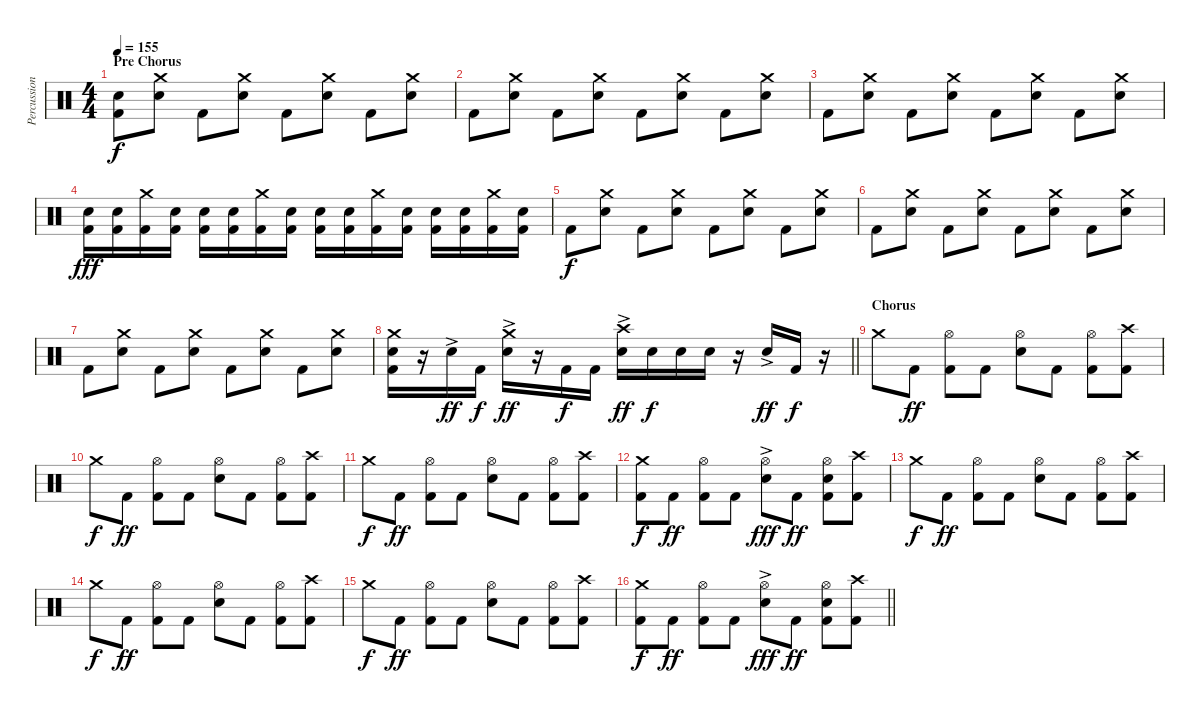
\track ("Percussion (Mike Oliver)" "Percussion") {instrument percussion}
\staff {score}
\articulation defaults
\ts (4 4)
\section ("" "Pre Chorus")
\tempo 155
\clef neutral
\ks c
("Snare (hit) 2" "Kick (hit) 2").8{dy f} ("Crash medium (hit)" "Snare (hit) 2").8 "Kick (hit) 2".8 ("Crash medium (hit)" "Snare (hit) 2").8 "Kick (hit) 2".8 ("Crash medium (hit)" "Snare (hit) 2").8 "Kick (hit) 2".8 ("Crash medium (hit)" "Snare (hit) 2").8 |
"Kick (hit) 2".8 ("Crash medium (hit)" "Snare (hit) 2").8 "Kick (hit) 2".8 ("Crash medium (hit)" "Snare (hit) 2").8 "Kick (hit) 2".8 ("Crash medium (hit)" "Snare (hit) 2").8 "Kick (hit) 2".8 ("Crash medium (hit)" "Snare (hit) 2").8 |
"Kick (hit) 2".8 ("Crash medium (hit)" "Snare (hit) 2").8 "Kick (hit) 2".8 ("Crash medium (hit)" "Snare (hit) 2").8 "Kick (hit) 2".8 ("Crash medium (hit)" "Snare (hit) 2").8 "Kick (hit) 2".8 ("Crash medium (hit)" "Snare (hit) 2").8 |
("Snare (hit) 2" "Kick (hit) 2").16{dy fff} ("Snare (hit) 2" "Kick (hit) 2").16 ("Crash medium (hit)" "Kick (hit) 2").16 ("Snare (hit) 2" "Kick (hit) 2").16 ("Snare (hit) 2" "Kick (hit) 2").16 ("Snare (hit) 2" "Kick (hit) 2").16 ("Crash medium (hit)" "Kick (hit) 2").16 ("Snare (hit) 2" "Kick (hit) 2").16 ("Snare (hit) 2" "Kick (hit) 2").16 ("Snare (hit) 2" "Kick (hit) 2").16 ("Crash medium (hit)" "Kick (hit) 2").16 ("Snare (hit) 2" "Kick (hit) 2").16 ("Snare (hit) 2" "Kick (hit) 2").16 ("Snare (hit) 2" "Kick (hit) 2").16 ("Crash medium (hit)" "Kick (hit) 2").16 ("Snare (hit) 2" "Kick (hit) 2").16 |
"Kick (hit) 2".8{dy f} ("Crash medium (hit)" "Snare (hit) 2").8 "Kick (hit) 2".8 ("Crash medium (hit)" "Snare (hit) 2").8 "Kick (hit) 2".8 ("Crash medium (hit)" "Snare (hit) 2").8 "Kick (hit) 2".8 ("Crash medium (hit)" "Snare (hit) 2").8 |
"Kick (hit) 2".8 ("Crash medium (hit)" "Snare (hit) 2").8 "Kick (hit) 2".8 ("Crash medium (hit)" "Snare (hit) 2").8 "Kick (hit) 2".8 ("Crash medium (hit)" "Snare (hit) 2").8 "Kick (hit) 2".8 ("Crash medium (hit)" "Snare (hit) 2").8 |
"Kick (hit) 2".8 ("Crash medium (hit)" "Snare (hit) 2").8 "Kick (hit) 2".8 ("Crash medium (hit)" "Snare (hit) 2").8 "Kick (hit) 2".8 ("Crash medium (hit)" "Snare (hit) 2").8 "Kick (hit) 2".8 ("Crash medium (hit)" "Snare (hit) 2").8 |
\barLineRight lightlight
("Crash medium (hit)" "Snare (hit) 2" "Kick (hit) 2").16 r.16 "Snare (hit) 2"{ac}.16{dy ff} "Kick (hit) 2".16{dy f} ("Crash medium (hit)" "Snare (hit) 2"{ac}).16{dy ff} r.16 "Kick (hit) 2".16{dy f} "Kick (hit) 2".16 ("Crash high (hit)" "Snare (hit) 2"{ac}).16{dy ff} "Snare (hit) 2".16{dy f} "Snare (hit) 2".16 "Snare (hit) 2".16 r.16 "Snare (hit) 2"{ac}.16{dy ff} "Kick (hit) 2".16{dy f} r.16 |
\section ("" "Chorus")
"Crash medium (hit)".8 "Kick (hit) 2".8{dy ff} ("Hi-Hat (open)" "Kick (hit) 2").8 "Kick (hit) 2".8 ("Hi-Hat (open)" "Snare (hit) 2").8 "Kick (hit) 2".8 ("Hi-Hat (open)" "Kick (hit) 2").8 ("Crash high (hit)" "Kick (hit) 2").8 |
"Crash medium (hit)".8{dy f} "Kick (hit) 2".8{dy ff} ("Hi-Hat (open)" "Kick (hit) 2").8 "Kick (hit) 2".8 ("Hi-Hat (open)" "Snare (hit) 2").8 "Kick (hit) 2".8 ("Hi-Hat (open)" "Kick (hit) 2").8 ("Crash high (hit)" "Kick (hit) 2").8 |
"Crash medium (hit)".8{dy f} "Kick (hit) 2".8{dy ff} ("Hi-Hat (open)" "Kick (hit) 2").8 "Kick (hit) 2".8 ("Hi-Hat (open)" "Snare (hit) 2").8 "Kick (hit) 2".8 ("Hi-Hat (open)" "Kick (hit) 2").8 ("Crash high (hit)" "Kick (hit) 2").8 |
("Crash medium (hit)" "Kick (hit) 2").8{dy f} "Kick (hit) 2".8{dy ff} ("Hi-Hat (open)" "Kick (hit) 2").8 "Kick (hit) 2".8 ("Hi-Hat (open)" "Snare (hit) 2"{ac}).8{dy fff} "Kick (hit) 2".8{dy ff} ("Hi-Hat (open)" "Snare (hit) 2" "Kick (hit) 2").8 ("Crash high (hit)" "Kick (hit) 2").8 |
"Crash medium (hit)".8{dy f} "Kick (hit) 2".8{dy ff} ("Hi-Hat (open)" "Kick (hit) 2").8 "Kick (hit) 2".8 ("Hi-Hat (open)" "Snare (hit) 2").8 "Kick (hit) 2".8 ("Hi-Hat (open)" "Kick (hit) 2").8 ("Crash high (hit)" "Kick (hit) 2").8 |
"Crash medium (hit)".8{dy f} "Kick (hit) 2".8{dy ff} ("Hi-Hat (open)" "Kick (hit) 2").8 "Kick (hit) 2".8 ("Hi-Hat (open)" "Snare (hit) 2").8 "Kick (hit) 2".8 ("Hi-Hat (open)" "Kick (hit) 2").8 ("Crash high (hit)" "Kick (hit) 2").8 |
"Crash medium (hit)".8{dy f} "Kick (hit) 2".8{dy ff} ("Hi-Hat (open)" "Kick (hit) 2").8 "Kick (hit) 2".8 ("Hi-Hat (open)" "Snare (hit) 2").8 "Kick (hit) 2".8 ("Hi-Hat (open)" "Kick (hit) 2").8 ("Crash high (hit)" "Kick (hit) 2").8 |
\barLineRight lightlight
("Crash medium (hit)" "Kick (hit) 2").8{dy f} "Kick (hit) 2".8{dy ff} ("Hi-Hat (open)" "Kick (hit) 2").8 "Kick (hit) 2".8 ("Hi-Hat (open)" "Snare (hit) 2"{ac}).8{dy fff} "Kick (hit) 2".8{dy ff} ("Hi-Hat (open)" "Snare (hit) 2" "Kick (hit) 2").8 ("Crash high (hit)" "Kick (hit) 2").8
